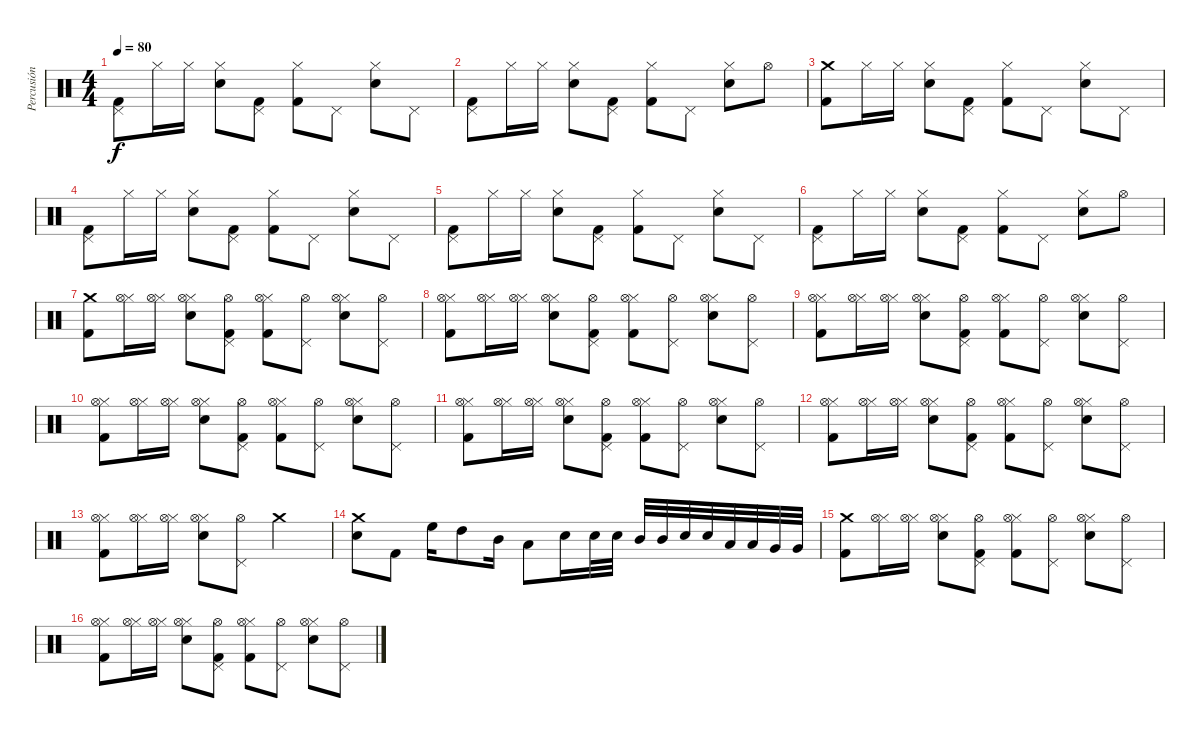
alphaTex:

\track ("Percusión" "Percusión") {instrument percussion}
\staff {score}
\articulation defaults
\ts (4 4)
\tempo 80
\clef neutral
\ks c
("Pedal Hi-Hat (hit)" "Kick (hit) 2").8{dy f} "Hi-Hat (closed)".16 "Hi-Hat (closed)".16 ("Hi-Hat (closed)" "Snare (hit) 2").8 ("Pedal Hi-Hat (hit)" "Kick (hit) 2").8 ("Hi-Hat (closed)" "Kick (hit) 2").8 "Pedal Hi-Hat (hit)".8 ("Hi-Hat (closed)" "Snare (hit) 2").8 "Pedal Hi-Hat (hit)".8 |
("Pedal Hi-Hat (hit)" "Kick (hit) 2").8 "Hi-Hat (closed)".16 "Hi-Hat (closed)".16 ("Hi-Hat (closed)" "Snare (hit) 2").8 ("Pedal Hi-Hat (hit)" "Kick (hit) 2").8 ("Hi-Hat (closed)" "Kick (hit) 2").8 "Pedal Hi-Hat (hit)".8 ("Hi-Hat (closed)" "Snare (hit) 2").8 "Hi-Hat (open)".8 |
("Crash medium (hit)" "Kick (hit) 2").8 "Hi-Hat (closed)".16 "Hi-Hat (closed)".16 ("Hi-Hat (closed)" "Snare (hit) 2").8 ("Pedal Hi-Hat (hit)" "Kick (hit) 2").8 ("Hi-Hat (closed)" "Kick (hit) 2").8 "Pedal Hi-Hat (hit)".8 ("Hi-Hat (closed)" "Snare (hit) 2").8 "Pedal Hi-Hat (hit)".8 |
("Pedal Hi-Hat (hit)" "Kick (hit) 2").8 "Hi-Hat (closed)".16 "Hi-Hat (closed)".16 ("Hi-Hat (closed)" "Snare (hit) 2").8 ("Pedal Hi-Hat (hit)" "Kick (hit) 2").8 ("Hi-Hat (closed)" "Kick (hit) 2").8 "Pedal Hi-Hat (hit)".8 ("Hi-Hat (closed)" "Snare (hit) 2").8 "Pedal Hi-Hat (hit)".8 |
("Pedal Hi-Hat (hit)" "Kick (hit) 2").8 "Hi-Hat (closed)".16 "Hi-Hat (closed)".16 ("Hi-Hat (closed)" "Snare (hit) 2").8 ("Pedal Hi-Hat (hit)" "Kick (hit) 2").8 ("Hi-Hat (closed)" "Kick (hit) 2").8 "Pedal Hi-Hat (hit)".8 ("Hi-Hat (closed)" "Snare (hit) 2").8 "Pedal Hi-Hat (hit)".8 |
("Pedal Hi-Hat (hit)" "Kick (hit) 2").8 "Hi-Hat (closed)".16 "Hi-Hat (closed)".16 ("Hi-Hat (closed)" "Snare (hit) 2").8 ("Pedal Hi-Hat (hit)" "Kick (hit) 2").8 ("Hi-Hat (closed)" "Kick (hit) 2").8 "Pedal Hi-Hat (hit)".8 ("Hi-Hat (closed)" "Snare (hit) 2").8 "Hi-Hat (open)".8 |
("Crash medium (hit)" "Kick (hit) 2").8 ("Hi-Hat (closed)" "Hi-Hat (open)").16 ("Hi-Hat (closed)" "Hi-Hat (open)").16 ("Hi-Hat (closed)" "Hi-Hat (open)" "Snare (hit) 2").8 ("Pedal Hi-Hat (hit)" "Hi-Hat (open)" "Kick (hit) 2").8 ("Hi-Hat (closed)" "Hi-Hat (open)" "Kick (hit) 2").8 ("Pedal Hi-Hat (hit)" "Hi-Hat (open)").8 ("Hi-Hat (closed)" "Hi-Hat (open)" "Snare (hit) 2").8 ("Pedal Hi-Hat (hit)" "Hi-Hat (open)").8 |
("Hi-Hat (closed)" "Hi-Hat (open)" "Kick (hit) 2").8 ("Hi-Hat (closed)" "Hi-Hat (open)").16 ("Hi-Hat (closed)" "Hi-Hat (open)").16 ("Hi-Hat (closed)" "Hi-Hat (open)" "Snare (hit) 2").8 ("Pedal Hi-Hat (hit)" "Hi-Hat (open)" "Kick (hit) 2").8 ("Hi-Hat (closed)" "Hi-Hat (open)" "Kick (hit) 2").8 ("Pedal Hi-Hat (hit)" "Hi-Hat (open)").8 ("Hi-Hat (closed)" "Hi-Hat (open)" "Snare (hit) 2").8 ("Pedal Hi-Hat (hit)" "Hi-Hat (open)").8 |
("Hi-Hat (closed)" "Hi-Hat (open)" "Kick (hit) 2").8 ("Hi-Hat (closed)" "Hi-Hat (open)").16 ("Hi-Hat (closed)" "Hi-Hat (open)").16 ("Hi-Hat (closed)" "Hi-Hat (open)" "Snare (hit) 2").8 ("Pedal Hi-Hat (hit)" "Hi-Hat (open)" "Kick (hit) 2").8 ("Hi-Hat (closed)" "Hi-Hat (open)" "Kick (hit) 2").8 ("Pedal Hi-Hat (hit)" "Hi-Hat (open)").8 ("Hi-Hat (closed)" "Hi-Hat (open)" "Snare (hit) 2").8 ("Pedal Hi-Hat (hit)" "Hi-Hat (open)").8 |
("Hi-Hat (closed)" "Hi-Hat (open)" "Kick (hit) 2").8 ("Hi-Hat (closed)" "Hi-Hat (open)").16 ("Hi-Hat (closed)" "Hi-Hat (open)").16 ("Hi-Hat (closed)" "Hi-Hat (open)" "Snare (hit) 2").8 ("Pedal Hi-Hat (hit)" "Hi-Hat (open)" "Kick (hit) 2").8 ("Hi-Hat (closed)" "Hi-Hat (open)" "Kick (hit) 2").8 ("Pedal Hi-Hat (hit)" "Hi-Hat (open)").8 ("Hi-Hat (closed)" "Hi-Hat (open)" "Snare (hit) 2").8 ("Pedal Hi-Hat (hit)" "Hi-Hat (open)").8 |
("Hi-Hat (closed)" "Hi-Hat (open)" "Kick (hit) 2").8 ("Hi-Hat (closed)" "Hi-Hat (open)").16 ("Hi-Hat (closed)" "Hi-Hat (open)").16 ("Hi-Hat (closed)" "Hi-Hat (open)" "Snare (hit) 2").8 ("Pedal Hi-Hat (hit)" "Hi-Hat (open)" "Kick (hit) 2").8 ("Hi-Hat (closed)" "Hi-Hat (open)" "Kick (hit) 2").8 ("Pedal Hi-Hat (hit)" "Hi-Hat (open)").8 ("Hi-Hat (closed)" "Hi-Hat (open)" "Snare (hit) 2").8 ("Pedal Hi-Hat (hit)" "Hi-Hat (open)").8 |
("Hi-Hat (closed)" "Hi-Hat (open)" "Kick (hit) 2").8 ("Hi-Hat (closed)" "Hi-Hat (open)").16 ("Hi-Hat (closed)" "Hi-Hat (open)").16 ("Hi-Hat (closed)" "Hi-Hat (open)" "Snare (hit) 2").8 ("Pedal Hi-Hat (hit)" "Hi-Hat (open)" "Kick (hit) 2").8 ("Hi-Hat (closed)" "Hi-Hat (open)" "Kick (hit) 2").8 ("Pedal Hi-Hat (hit)" "Hi-Hat (open)").8 ("Hi-Hat (closed)" "Hi-Hat (open)" "Snare (hit) 2").8 ("Pedal Hi-Hat (hit)" "Hi-Hat (open)").8 |
("Hi-Hat (closed)" "Hi-Hat (open)" "Kick (hit) 2").8 ("Hi-Hat (closed)" "Hi-Hat (open)").16 ("Hi-Hat (closed)" "Hi-Hat (open)").16 ("Hi-Hat (closed)" "Hi-Hat (open)" "Snare (hit) 2").8 ("Pedal Hi-Hat (hit)" "Hi-Hat (open)").8 "Crash medium (hit)".2 |
("Crash medium (hit)" "Snare (hit) 2").8 "Kick (hit) 2".8 "High Floor Tom (hit)".16 "High Tom (hit)".8 "Mid Tom (hit)".16 "Low Tom (hit)".8 "Snare (hit) 2".16 "Snare (hit) 2".32 "Snare (hit) 2".32 "Mid Tom (hit)".32 "Mid Tom (hit)".32 "Snare (hit) 2".32 "Snare (hit) 2".32 "Low Tom (hit)".32 "Low Tom (hit)".32 "Very Low Tom (hit)".32 "Very Low Tom (hit)".32 |
("Crash medium (hit)" "Kick (hit) 2").8 ("Hi-Hat (closed)" "Hi-Hat (open)").16 ("Hi-Hat (closed)" "Hi-Hat (open)").16 ("Hi-Hat (closed)" "Hi-Hat (open)" "Snare (hit) 2").8 ("Pedal Hi-Hat (hit)" "Hi-Hat (open)" "Kick (hit) 2").8 ("Hi-Hat (closed)" "Hi-Hat (open)" "Kick (hit) 2").8 ("Pedal Hi-Hat (hit)" "Hi-Hat (open)").8 ("Hi-Hat (closed)" "Hi-Hat (open)" "Snare (hit) 2").8 ("Pedal Hi-Hat (hit)" "Hi-Hat (open)").8 |
("Hi-Hat (closed)" "Hi-Hat (open)" "Kick (hit) 2").8 ("Hi-Hat (closed)" "Hi-Hat (open)").16 ("Hi-Hat (closed)" "Hi-Hat (open)").16 ("Hi-Hat (closed)" "Hi-Hat (open)" "Snare (hit) 2").8 ("Pedal Hi-Hat (hit)" "Hi-Hat (open)" "Kick (hit) 2").8 ("Hi-Hat (closed)" "Hi-Hat (open)" "Kick (hit) 2").8 ("Pedal Hi-Hat (hit)" "Hi-Hat (open)").8 ("Hi-Hat (closed)" "Hi-Hat (open)" "Snare (hit) 2").8 ("Pedal Hi-Hat (hit)" "Hi-Hat (open)").8
